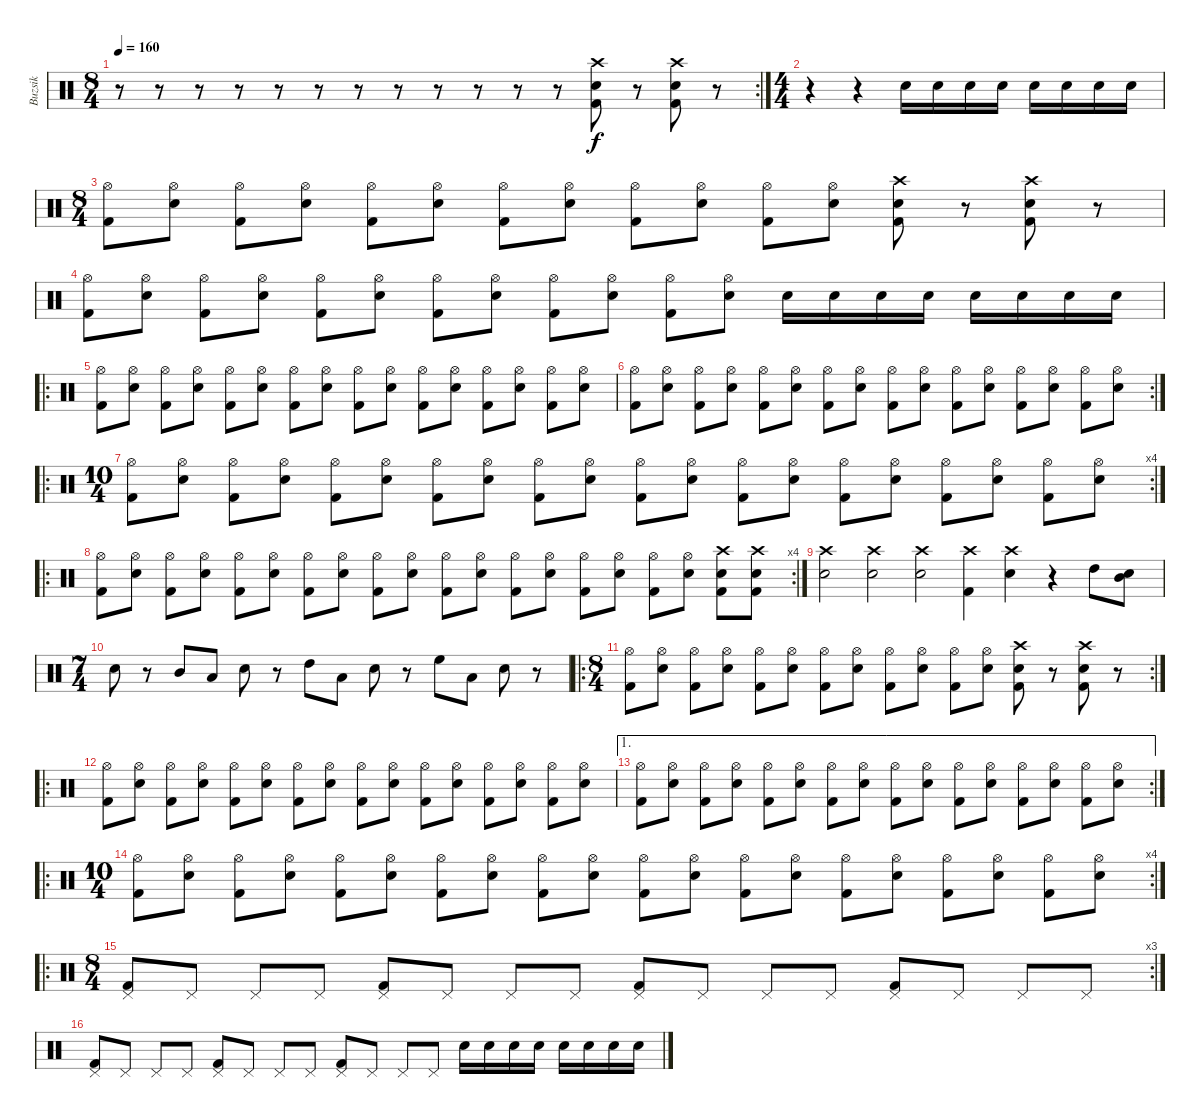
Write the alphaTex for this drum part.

\track ("Buzsik" "Buzsik") {instrument percussion}
\staff {score}
\articulation defaults
\rc 2
\ts (8 4)
\tempo 160
\clef neutral
\ks c
r.8{dy f} r.8 r.8 r.8 r.8 r.8 r.8 r.8 r.8 r.8 r.8 r.8 ("Crash high (hit)" "Snare (hit) 2" "Kick (hit) 2").8 r.8 ("Crash high (hit)" "Snare (hit) 2" "Kick (hit) 2").8 r.8 |
\ts (4 4)
r.4 r.4 "Electric Snare (hit)".16 "Electric Snare (hit)".16 "Electric Snare (hit)".16 "Electric Snare (hit)".16 "Electric Snare (hit)".16 "Electric Snare (hit)".16 "Electric Snare (hit)".16 "Electric Snare (hit)".16 |
\ts (8 4)
("Hi-Hat (open)" "Kick (hit) 2").8 ("Hi-Hat (open)" "Electric Snare (hit)").8 ("Hi-Hat (open)" "Kick (hit) 2").8 ("Hi-Hat (open)" "Electric Snare (hit)").8 ("Hi-Hat (open)" "Kick (hit) 2").8 ("Hi-Hat (open)" "Electric Snare (hit)").8 ("Hi-Hat (open)" "Kick (hit) 2").8 ("Hi-Hat (open)" "Electric Snare (hit)").8 ("Hi-Hat (open)" "Kick (hit) 2").8 ("Hi-Hat (open)" "Electric Snare (hit)").8 ("Hi-Hat (open)" "Kick (hit) 2").8 ("Hi-Hat (open)" "Electric Snare (hit)").8 ("Crash high (hit)" "Snare (hit) 2" "Kick (hit) 2").8 r.8 ("Crash high (hit)" "Snare (hit) 2" "Kick (hit) 2").8 r.8 |
("Hi-Hat (open)" "Kick (hit) 2").8 ("Hi-Hat (open)" "Electric Snare (hit)").8 ("Hi-Hat (open)" "Kick (hit) 2").8 ("Hi-Hat (open)" "Electric Snare (hit)").8 ("Hi-Hat (open)" "Kick (hit) 2").8 ("Hi-Hat (open)" "Electric Snare (hit)").8 ("Hi-Hat (open)" "Kick (hit) 2").8 ("Hi-Hat (open)" "Electric Snare (hit)").8 ("Hi-Hat (open)" "Kick (hit) 2").8 ("Hi-Hat (open)" "Electric Snare (hit)").8 ("Hi-Hat (open)" "Kick (hit) 2").8 ("Hi-Hat (open)" "Electric Snare (hit)").8 "Electric Snare (hit)".16 "Electric Snare (hit)".16 "Electric Snare (hit)".16 "Electric Snare (hit)".16 "Electric Snare (hit)".16 "Electric Snare (hit)".16 "Electric Snare (hit)".16 "Electric Snare (hit)".16 |
\ro
("Hi-Hat (open)" "Kick (hit) 2").8 ("Hi-Hat (open)" "Electric Snare (hit)").8 ("Hi-Hat (open)" "Kick (hit) 2").8 ("Hi-Hat (open)" "Electric Snare (hit)").8 ("Hi-Hat (open)" "Kick (hit) 2").8 ("Hi-Hat (open)" "Electric Snare (hit)").8 ("Hi-Hat (open)" "Kick (hit) 2").8 ("Hi-Hat (open)" "Electric Snare (hit)").8 ("Hi-Hat (open)" "Kick (hit) 2").8 ("Hi-Hat (open)" "Electric Snare (hit)").8 ("Hi-Hat (open)" "Kick (hit) 2").8 ("Hi-Hat (open)" "Electric Snare (hit)").8 ("Hi-Hat (open)" "Kick (hit) 2").8 ("Hi-Hat (open)" "Electric Snare (hit)").8 ("Hi-Hat (open)" "Kick (hit) 2").8 ("Hi-Hat (open)" "Electric Snare (hit)").8 |
\rc 2
("Hi-Hat (open)" "Kick (hit) 2").8 ("Hi-Hat (open)" "Electric Snare (hit)").8 ("Hi-Hat (open)" "Kick (hit) 2").8 ("Hi-Hat (open)" "Electric Snare (hit)").8 ("Hi-Hat (open)" "Kick (hit) 2").8 ("Hi-Hat (open)" "Electric Snare (hit)").8 ("Hi-Hat (open)" "Kick (hit) 2").8 ("Hi-Hat (open)" "Electric Snare (hit)").8 ("Hi-Hat (open)" "Kick (hit) 2").8 ("Hi-Hat (open)" "Electric Snare (hit)").8 ("Hi-Hat (open)" "Kick (hit) 2").8 ("Hi-Hat (open)" "Electric Snare (hit)").8 ("Hi-Hat (open)" "Kick (hit) 2").8 ("Hi-Hat (open)" "Electric Snare (hit)").8 ("Hi-Hat (open)" "Kick (hit) 2").8 ("Hi-Hat (open)" "Electric Snare (hit)").8 |
\ro
\rc 4
\ts (10 4)
("Hi-Hat (open)" "Kick (hit) 2").8 ("Hi-Hat (open)" "Electric Snare (hit)").8 ("Hi-Hat (open)" "Kick (hit) 2").8 ("Hi-Hat (open)" "Electric Snare (hit)").8 ("Hi-Hat (open)" "Kick (hit) 2").8 ("Hi-Hat (open)" "Electric Snare (hit)").8 ("Hi-Hat (open)" "Kick (hit) 2").8 ("Hi-Hat (open)" "Electric Snare (hit)").8 ("Hi-Hat (open)" "Kick (hit) 2").8 ("Hi-Hat (open)" "Electric Snare (hit)").8 ("Hi-Hat (open)" "Kick (hit) 2").8 ("Hi-Hat (open)" "Electric Snare (hit)").8 ("Hi-Hat (open)" "Kick (hit) 2").8 ("Hi-Hat (open)" "Electric Snare (hit)").8 ("Hi-Hat (open)" "Kick (hit) 2").8 ("Hi-Hat (open)" "Electric Snare (hit)").8 ("Hi-Hat (open)" "Kick (hit) 2").8 ("Hi-Hat (open)" "Electric Snare (hit)").8 ("Hi-Hat (open)" "Kick (hit) 2").8 ("Hi-Hat (open)" "Electric Snare (hit)").8 |
\ro
\rc 4
("Hi-Hat (open)" "Kick (hit) 2").8 ("Hi-Hat (open)" "Electric Snare (hit)").8 ("Hi-Hat (open)" "Kick (hit) 2").8 ("Hi-Hat (open)" "Electric Snare (hit)").8 ("Hi-Hat (open)" "Kick (hit) 2").8 ("Hi-Hat (open)" "Electric Snare (hit)").8 ("Hi-Hat (open)" "Kick (hit) 2").8 ("Hi-Hat (open)" "Electric Snare (hit)").8 ("Hi-Hat (open)" "Kick (hit) 2").8 ("Hi-Hat (open)" "Electric Snare (hit)").8 ("Hi-Hat (open)" "Kick (hit) 2").8 ("Hi-Hat (open)" "Electric Snare (hit)").8 ("Hi-Hat (open)" "Kick (hit) 2").8 ("Hi-Hat (open)" "Electric Snare (hit)").8 ("Hi-Hat (open)" "Kick (hit) 2").8 ("Hi-Hat (open)" "Electric Snare (hit)").8 ("Hi-Hat (open)" "Kick (hit) 2").8 ("Hi-Hat (open)" "Electric Snare (hit)").8 ("Crash high (hit)" "Snare (hit) 2" "Kick (hit) 2").8 ("Crash high (hit)" "Snare (hit) 2" "Kick (hit) 2").8 |
("Crash high (hit)" "Snare (hit) 2").2 ("Crash high (hit)" "Snare (hit) 2").2 ("Crash high (hit)" "Snare (hit) 2").2 ("Crash high (hit)" "Kick (hit) 2").4 ("Crash high (hit)" "Snare (hit) 2").4 r.4 "High Tom (hit)".8 ("Mid Tom (hit)" "Electric Snare (hit)").8 |
\ts (7 4)
"Electric Snare (hit)".8 r.8 "Mid Tom (hit)".8 "Low Tom (hit)".8 "Electric Snare (hit)".8 r.8 "High Tom (hit)".8 "Low Tom (hit)".8 "Electric Snare (hit)".8 r.8 "High Floor Tom (hit)".8 "Low Tom (hit)".8 "Electric Snare (hit)".8 r.8 |
\ro
\rc 2
\ts (8 4)
("Hi-Hat (open)" "Kick (hit) 2").8 ("Hi-Hat (open)" "Electric Snare (hit)").8 ("Hi-Hat (open)" "Kick (hit) 2").8 ("Hi-Hat (open)" "Electric Snare (hit)").8 ("Hi-Hat (open)" "Kick (hit) 2").8 ("Hi-Hat (open)" "Electric Snare (hit)").8 ("Hi-Hat (open)" "Kick (hit) 2").8 ("Hi-Hat (open)" "Electric Snare (hit)").8 ("Hi-Hat (open)" "Kick (hit) 2").8 ("Hi-Hat (open)" "Electric Snare (hit)").8 ("Hi-Hat (open)" "Kick (hit) 2").8 ("Hi-Hat (open)" "Electric Snare (hit)").8 ("Crash high (hit)" "Snare (hit) 2" "Kick (hit) 2").8 r.8 ("Crash high (hit)" "Snare (hit) 2" "Kick (hit) 2").8 r.8 |
\ro
("Hi-Hat (open)" "Kick (hit) 2").8 ("Hi-Hat (open)" "Electric Snare (hit)").8 ("Hi-Hat (open)" "Kick (hit) 2").8 ("Hi-Hat (open)" "Electric Snare (hit)").8 ("Hi-Hat (open)" "Kick (hit) 2").8 ("Hi-Hat (open)" "Electric Snare (hit)").8 ("Hi-Hat (open)" "Kick (hit) 2").8 ("Hi-Hat (open)" "Electric Snare (hit)").8 ("Hi-Hat (open)" "Kick (hit) 2").8 ("Hi-Hat (open)" "Electric Snare (hit)").8 ("Hi-Hat (open)" "Kick (hit) 2").8 ("Hi-Hat (open)" "Electric Snare (hit)").8 ("Hi-Hat (open)" "Kick (hit) 2").8 ("Hi-Hat (open)" "Electric Snare (hit)").8 ("Hi-Hat (open)" "Kick (hit) 2").8 ("Hi-Hat (open)" "Electric Snare (hit)").8 |
\ae 1
\rc 2
("Hi-Hat (open)" "Kick (hit) 2").8 ("Hi-Hat (open)" "Electric Snare (hit)").8 ("Hi-Hat (open)" "Kick (hit) 2").8 ("Hi-Hat (open)" "Electric Snare (hit)").8 ("Hi-Hat (open)" "Kick (hit) 2").8 ("Hi-Hat (open)" "Electric Snare (hit)").8 ("Hi-Hat (open)" "Kick (hit) 2").8 ("Hi-Hat (open)" "Electric Snare (hit)").8 ("Hi-Hat (open)" "Kick (hit) 2").8 ("Hi-Hat (open)" "Electric Snare (hit)").8 ("Hi-Hat (open)" "Kick (hit) 2").8 ("Hi-Hat (open)" "Electric Snare (hit)").8 ("Hi-Hat (open)" "Kick (hit) 2").8 ("Hi-Hat (open)" "Electric Snare (hit)").8 ("Hi-Hat (open)" "Kick (hit) 2").8 ("Hi-Hat (open)" "Electric Snare (hit)").8 |
\ro
\rc 4
\ts (10 4)
("Hi-Hat (open)" "Kick (hit) 2").8 ("Hi-Hat (open)" "Electric Snare (hit)").8 ("Hi-Hat (open)" "Kick (hit) 2").8 ("Hi-Hat (open)" "Electric Snare (hit)").8 ("Hi-Hat (open)" "Kick (hit) 2").8 ("Hi-Hat (open)" "Electric Snare (hit)").8 ("Hi-Hat (open)" "Kick (hit) 2").8 ("Hi-Hat (open)" "Electric Snare (hit)").8 ("Hi-Hat (open)" "Kick (hit) 2").8 ("Hi-Hat (open)" "Electric Snare (hit)").8 ("Hi-Hat (open)" "Kick (hit) 2").8 ("Hi-Hat (open)" "Electric Snare (hit)").8 ("Hi-Hat (open)" "Kick (hit) 2").8 ("Hi-Hat (open)" "Electric Snare (hit)").8 ("Hi-Hat (open)" "Kick (hit) 2").8 ("Hi-Hat (open)" "Electric Snare (hit)").8 ("Hi-Hat (open)" "Kick (hit) 2").8 ("Hi-Hat (open)" "Electric Snare (hit)").8 ("Hi-Hat (open)" "Kick (hit) 2").8 ("Hi-Hat (open)" "Electric Snare (hit)").8 |
\ro
\rc 3
\ts (8 4)
("Pedal Hi-Hat (hit)" "Kick (hit) 2").8 "Pedal Hi-Hat (hit)".8 "Pedal Hi-Hat (hit)".8 "Pedal Hi-Hat (hit)".8 ("Pedal Hi-Hat (hit)" "Kick (hit) 2").8 "Pedal Hi-Hat (hit)".8 "Pedal Hi-Hat (hit)".8 "Pedal Hi-Hat (hit)".8 ("Pedal Hi-Hat (hit)" "Kick (hit) 2").8 "Pedal Hi-Hat (hit)".8 "Pedal Hi-Hat (hit)".8 "Pedal Hi-Hat (hit)".8 ("Pedal Hi-Hat (hit)" "Kick (hit) 2").8 "Pedal Hi-Hat (hit)".8 "Pedal Hi-Hat (hit)".8 "Pedal Hi-Hat (hit)".8 |
("Pedal Hi-Hat (hit)" "Kick (hit) 2").8 "Pedal Hi-Hat (hit)".8 "Pedal Hi-Hat (hit)".8 "Pedal Hi-Hat (hit)".8 ("Pedal Hi-Hat (hit)" "Kick (hit) 2").8 "Pedal Hi-Hat (hit)".8 "Pedal Hi-Hat (hit)".8 "Pedal Hi-Hat (hit)".8 ("Pedal Hi-Hat (hit)" "Kick (hit) 2").8 "Pedal Hi-Hat (hit)".8 "Pedal Hi-Hat (hit)".8 "Pedal Hi-Hat (hit)".8 "Electric Snare (hit)".16 "Electric Snare (hit)".16 "Electric Snare (hit)".16 "Electric Snare (hit)".16 "Electric Snare (hit)".16 "Electric Snare (hit)".16 "Electric Snare (hit)".16 "Electric Snare (hit)".16
